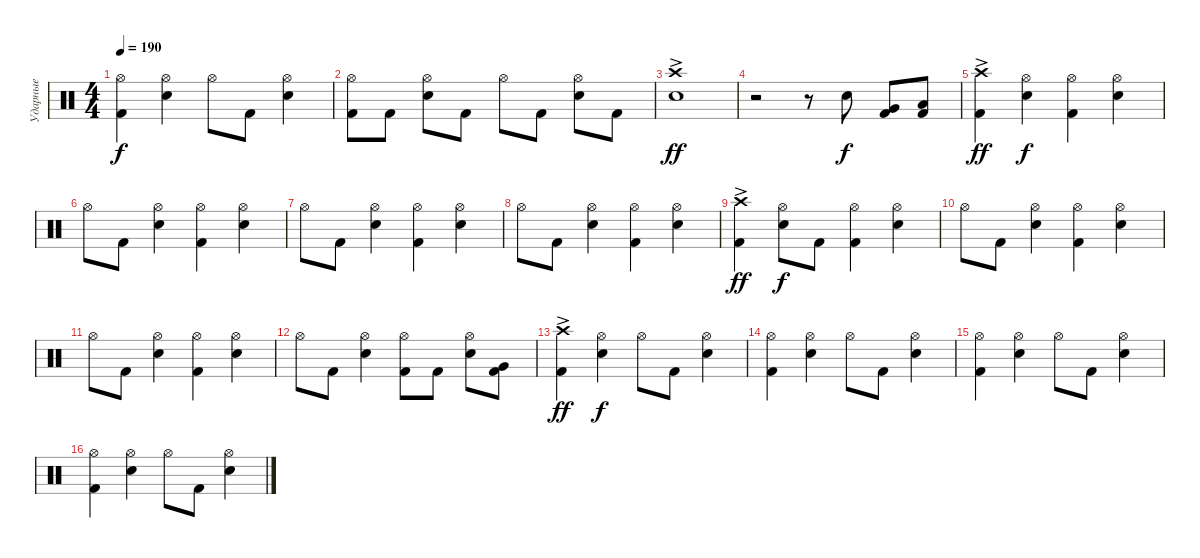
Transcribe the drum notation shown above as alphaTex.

\track ("Ударные" "Ударные") {instrument percussion}
\staff {score}
\articulation defaults
\ts (4 4)
\tempo 190
\clef neutral
\ks c
("Kick (hit) 2" "Hi-Hat (open)").4{dy f} ("Snare (hit) 2" "Hi-Hat (open)").4 "Hi-Hat (open)".8 "Kick (hit) 2".8 ("Snare (hit) 2" "Hi-Hat (open)").4 |
("Kick (hit) 2" "Hi-Hat (open)").8 "Kick (hit) 2".8 ("Snare (hit) 2" "Hi-Hat (open)").8 "Kick (hit) 2".8 "Hi-Hat (open)".8 "Kick (hit) 2".8 ("Snare (hit) 2" "Hi-Hat (open)").8 "Kick (hit) 2".8 |
("Snare (hit) 2" "Crash high (hit)"{ac}).1{dy ff} |
r.2 r.8 "Snare (hit) 2".8{dy f} ("Kick (hit) 2" "Very Low Tom (hit)").8 ("Kick (hit) 2" "Low Floor Tom (hit)").8 |
("Kick (hit) 2" "Crash high (hit)"{ac}).4{dy ff} ("Snare (hit) 2" "Hi-Hat (open)").4{dy f} ("Kick (hit) 2" "Hi-Hat (open)").4 ("Snare (hit) 2" "Hi-Hat (open)").4 |
"Hi-Hat (open)".8 "Kick (hit) 2".8 ("Snare (hit) 2" "Hi-Hat (open)").4 ("Kick (hit) 2" "Hi-Hat (open)").4 ("Snare (hit) 2" "Hi-Hat (open)").4 |
"Hi-Hat (open)".8 "Kick (hit) 2".8 ("Snare (hit) 2" "Hi-Hat (open)").4 ("Kick (hit) 2" "Hi-Hat (open)").4 ("Snare (hit) 2" "Hi-Hat (open)").4 |
"Hi-Hat (open)".8 "Kick (hit) 2".8 ("Snare (hit) 2" "Hi-Hat (open)").4 ("Kick (hit) 2" "Hi-Hat (open)").4 ("Snare (hit) 2" "Hi-Hat (open)").4 |
("Kick (hit) 2" "Crash high (hit)"{ac}).4{dy ff} ("Snare (hit) 2" "Hi-Hat (open)").8{dy f} "Kick (hit) 2".8 ("Kick (hit) 2" "Hi-Hat (open)").4 ("Snare (hit) 2" "Hi-Hat (open)").4 |
"Hi-Hat (open)".8 "Kick (hit) 2".8 ("Snare (hit) 2" "Hi-Hat (open)").4 ("Kick (hit) 2" "Hi-Hat (open)").4 ("Snare (hit) 2" "Hi-Hat (open)").4 |
"Hi-Hat (open)".8 "Kick (hit) 2".8 ("Snare (hit) 2" "Hi-Hat (open)").4 ("Kick (hit) 2" "Hi-Hat (open)").4 ("Snare (hit) 2" "Hi-Hat (open)").4 |
"Hi-Hat (open)".8 "Kick (hit) 2".8 ("Snare (hit) 2" "Hi-Hat (open)").4 ("Kick (hit) 2" "Hi-Hat (open)").8 "Kick (hit) 2".8 ("Snare (hit) 2" "Hi-Hat (open)").8 ("Kick (hit) 2" "Very Low Tom (hit)").8 |
("Kick (hit) 2" "Crash high (hit)"{ac}).4{dy ff} ("Snare (hit) 2" "Hi-Hat (open)").4{dy f} "Hi-Hat (open)".8 "Kick (hit) 2".8 ("Snare (hit) 2" "Hi-Hat (open)").4 |
("Kick (hit) 2" "Hi-Hat (open)").4 ("Snare (hit) 2" "Hi-Hat (open)").4 "Hi-Hat (open)".8 "Kick (hit) 2".8 ("Snare (hit) 2" "Hi-Hat (open)").4 |
("Kick (hit) 2" "Hi-Hat (open)").4 ("Snare (hit) 2" "Hi-Hat (open)").4 "Hi-Hat (open)".8 "Kick (hit) 2".8 ("Snare (hit) 2" "Hi-Hat (open)").4 |
("Kick (hit) 2" "Hi-Hat (open)").4 ("Snare (hit) 2" "Hi-Hat (open)").4 "Hi-Hat (open)".8 "Kick (hit) 2".8 ("Snare (hit) 2" "Hi-Hat (open)").4
